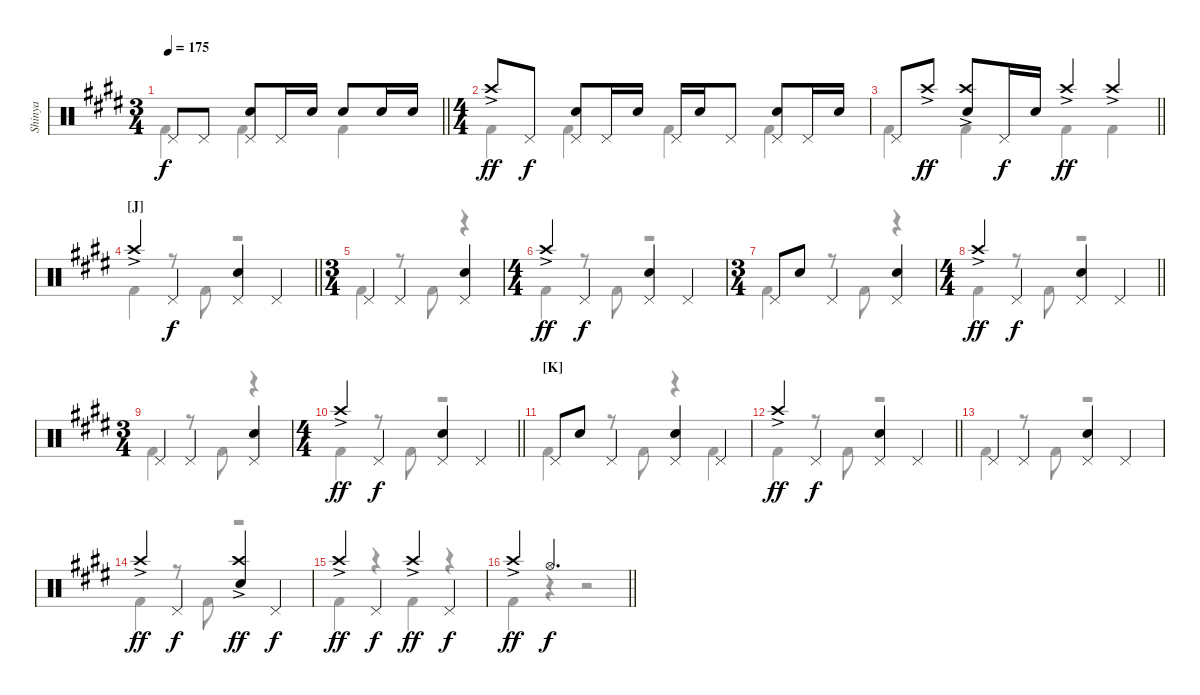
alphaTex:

\track ("Shinya" "Shinya") {instrument percussion}
\staff {score}
\articulation defaults
\voice
\ts (3 4)
\tempo 175
\clef neutral
\barLineRight lightlight
\ks c#minor "Pedal Hi-Hat (hit)".8{dy f} "Pedal Hi-Hat (hit)".8
("Pedal Hi-Hat (hit)" "Snare (hit) 2").8 "Pedal Hi-Hat (hit)".16 "Snare (hit) 2".16 "Snare (hit) 2".8 "Snare (hit) 2".16 "Snare (hit) 2".16 |
\ts (4 4)
"Crash high (hit)"{ac}.8{dy ff} "Pedal Hi-Hat (hit)".8{dy f} ("Pedal Hi-Hat (hit)" "Snare (hit) 2").8 "Pedal Hi-Hat (hit)".16 "Snare (hit) 2".16 "Pedal Hi-Hat (hit)".16 "Snare (hit) 2".16 "Pedal Hi-Hat (hit)".8 ("Pedal Hi-Hat (hit)" "Snare (hit) 2").8 "Pedal Hi-Hat (hit)".16 "Snare (hit) 2".16 |
\barLineRight lightlight "Pedal Hi-Hat (hit)".8 "Crash high (hit)"{ac}.8{dy ff}
("Crash high (hit)"{ac} "Snare (hit) 2").8 "Pedal Hi-Hat (hit)".16{dy f} "Snare (hit) 2".16 "Crash high (hit)"{ac}.4{dy ff} "Crash high (hit)"{ac}.4 |
\section ("" "[J]")
\barLineRight lightlight "Crash high (hit)"{ac}.4 "Pedal Hi-Hat (hit)".4{dy f}
("Pedal Hi-Hat (hit)" "Snare (hit) 2").4 "Pedal Hi-Hat (hit)".4 |
\ts (3 4)
"Pedal Hi-Hat (hit)".4 "Pedal Hi-Hat (hit)".4 ("Pedal Hi-Hat (hit)" "Snare (hit) 2").4 |
\ts (4 4)
"Crash high (hit)"{ac}.4{dy ff} "Pedal Hi-Hat (hit)".4{dy f} ("Pedal Hi-Hat (hit)" "Snare (hit) 2").4 "Pedal Hi-Hat (hit)".4 |
\ts (3 4)
"Pedal Hi-Hat (hit)".8 "Snare (hit) 2".8 "Pedal Hi-Hat (hit)".4 ("Pedal Hi-Hat (hit)" "Snare (hit) 2").4 |
\ts (4 4)
\barLineRight lightlight "Crash high (hit)"{ac}.4{dy ff} "Pedal Hi-Hat (hit)".4{dy f}
("Pedal Hi-Hat (hit)" "Snare (hit) 2").4 "Pedal Hi-Hat (hit)".4 |
\ts (3 4)
"Pedal Hi-Hat (hit)".4 "Pedal Hi-Hat (hit)".4 ("Pedal Hi-Hat (hit)" "Snare (hit) 2").4 |
\ts (4 4)
\barLineRight lightlight "Crash high (hit)"{ac}.4{dy ff} "Pedal Hi-Hat (hit)".4{dy f}
("Pedal Hi-Hat (hit)" "Snare (hit) 2").4 "Pedal Hi-Hat (hit)".4 |
\section ("" "[K]")
"Pedal Hi-Hat (hit)".8 "Snare (hit) 2".8 "Pedal Hi-Hat (hit)".4 ("Pedal Hi-Hat (hit)" "Snare (hit) 2").4 "Pedal Hi-Hat (hit)".4 |
\barLineRight lightlight "Crash high (hit)"{ac}.4{dy ff} "Pedal Hi-Hat (hit)".4{dy f}
("Pedal Hi-Hat (hit)" "Snare (hit) 2").4 "Pedal Hi-Hat (hit)".4 |
"Pedal Hi-Hat (hit)".4 "Pedal Hi-Hat (hit)".4 ("Pedal Hi-Hat (hit)" "Snare (hit) 2").4 "Pedal Hi-Hat (hit)".4 |
"Crash high (hit)"{ac}.4{dy ff} "Pedal Hi-Hat (hit)".4{dy f} ("Crash high (hit)"{ac} "Snare (hit) 2").4{dy ff} "Pedal Hi-Hat (hit)".4{dy f} |
"Crash high (hit)"{ac}.4{dy ff} "Pedal Hi-Hat (hit)".4{dy f} "Crash high (hit)"{ac}.4{dy ff} "Pedal Hi-Hat (hit)".4{dy f} |
\barLineRight lightlight "Crash high (hit)"{ac}.4{dy ff} "Hi-Hat (open)".2{d dy f}
\voice
\clef neutral
\ottava regular
\simile none
\barLineRight lightlight
\ks c#minor "Kick (hit) 2".4{dy f} "Kick (hit) 2".4 "Kick (hit) 2".4
|
"Kick (hit) 2".4 "Kick (hit) 2".4 "Kick (hit) 2".4 "Kick (hit) 2".4 |
\barLineRight lightlight "Kick (hit) 2".4 "Kick (hit) 2".4 "Kick (hit) 2".4 "Kick (hit) 2".4
|
\barLineRight lightlight "Kick (hit) 2".4
r.8 "Kick (hit) 2".8 r.2 |
"Kick (hit) 2".4 r.8 "Kick (hit) 2".8 r.4 |
"Kick (hit) 2".4 r.8 "Kick (hit) 2".8 r.2 |
"Kick (hit) 2".4 r.8 "Kick (hit) 2".8 r.4 |
\barLineRight lightlight "Kick (hit) 2".4
r.8 "Kick (hit) 2".8 r.2 |
"Kick (hit) 2".4 r.8 "Kick (hit) 2".8 r.4 |
\barLineRight lightlight "Kick (hit) 2".4
r.8 "Kick (hit) 2".8 r.2 |
"Kick (hit) 2".4 r.8 "Kick (hit) 2".8 r.4 "Kick (hit) 2".4 |
\barLineRight lightlight "Kick (hit) 2".4
r.8 "Kick (hit) 2".8 r.2 |
"Kick (hit) 2".4 r.8 "Kick (hit) 2".8 r.2 |
"Kick (hit) 2".4 r.8 "Kick (hit) 2".8 r.2 |
"Kick (hit) 2".4 r.4 "Kick (hit) 2".4 r.4 |
\barLineRight lightlight "Kick (hit) 2".4
r.4 r.2
